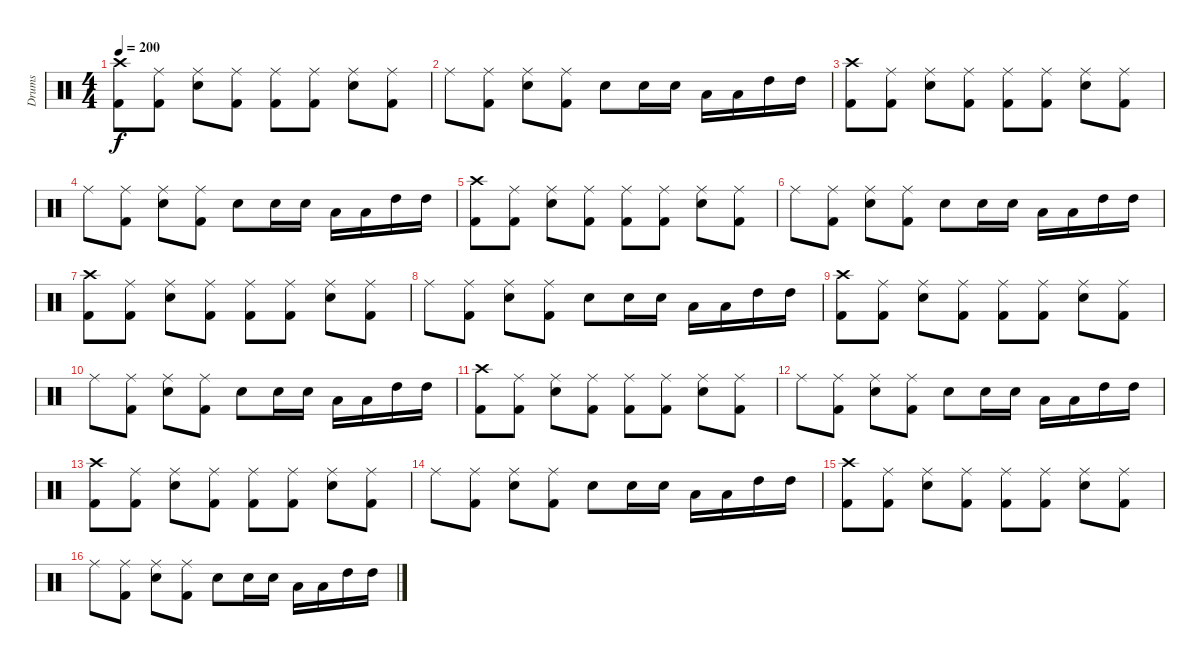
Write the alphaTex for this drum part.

\track ("Drums" "Drums") {instrument percussion}
\staff {score}
\articulation defaults
\ts (4 4)
\tempo 200
\clef neutral
\ks c
("Kick (hit) 2" "Crash high (hit)").8{dy f} ("Kick (hit) 2" "Ride (middle)").8 ("Snare (hit) 2" "Ride (middle)").8 ("Kick (hit) 2" "Ride (middle)").8 ("Kick (hit) 2" "Ride (middle)").8 ("Kick (hit) 2" "Ride (middle)").8 ("Snare (hit) 2" "Ride (middle)").8 ("Kick (hit) 2" "Ride (middle)").8 |
"Ride (middle)".8 ("Kick (hit) 2" "Ride (middle)").8 ("Snare (hit) 2" "Ride (middle)").8 ("Kick (hit) 2" "Ride (middle)").8 "Snare (hit) 2".8 "Snare (hit) 2".16 "Snare (hit) 2".16 "Low Tom (hit)".16 "Low Tom (hit)".16 "High Tom (hit)".16 "High Tom (hit)".16 |
("Kick (hit) 2" "Crash high (hit)").8 ("Kick (hit) 2" "Ride (middle)").8 ("Snare (hit) 2" "Ride (middle)").8 ("Kick (hit) 2" "Ride (middle)").8 ("Kick (hit) 2" "Ride (middle)").8 ("Kick (hit) 2" "Ride (middle)").8 ("Snare (hit) 2" "Ride (middle)").8 ("Kick (hit) 2" "Ride (middle)").8 |
"Ride (middle)".8 ("Kick (hit) 2" "Ride (middle)").8 ("Snare (hit) 2" "Ride (middle)").8 ("Kick (hit) 2" "Ride (middle)").8 "Snare (hit) 2".8 "Snare (hit) 2".16 "Snare (hit) 2".16 "Low Tom (hit)".16 "Low Tom (hit)".16 "High Tom (hit)".16 "High Tom (hit)".16 |
("Kick (hit) 2" "Crash high (hit)").8 ("Kick (hit) 2" "Ride (middle)").8 ("Snare (hit) 2" "Ride (middle)").8 ("Kick (hit) 2" "Ride (middle)").8 ("Kick (hit) 2" "Ride (middle)").8 ("Kick (hit) 2" "Ride (middle)").8 ("Snare (hit) 2" "Ride (middle)").8 ("Kick (hit) 2" "Ride (middle)").8 |
"Ride (middle)".8 ("Kick (hit) 2" "Ride (middle)").8 ("Snare (hit) 2" "Ride (middle)").8 ("Kick (hit) 2" "Ride (middle)").8 "Snare (hit) 2".8 "Snare (hit) 2".16 "Snare (hit) 2".16 "Low Tom (hit)".16 "Low Tom (hit)".16 "High Tom (hit)".16 "High Tom (hit)".16 |
("Kick (hit) 2" "Crash high (hit)").8 ("Kick (hit) 2" "Ride (middle)").8 ("Snare (hit) 2" "Ride (middle)").8 ("Kick (hit) 2" "Ride (middle)").8 ("Kick (hit) 2" "Ride (middle)").8 ("Kick (hit) 2" "Ride (middle)").8 ("Snare (hit) 2" "Ride (middle)").8 ("Kick (hit) 2" "Ride (middle)").8 |
"Ride (middle)".8 ("Kick (hit) 2" "Ride (middle)").8 ("Snare (hit) 2" "Ride (middle)").8 ("Kick (hit) 2" "Ride (middle)").8 "Snare (hit) 2".8 "Snare (hit) 2".16 "Snare (hit) 2".16 "Low Tom (hit)".16 "Low Tom (hit)".16 "High Tom (hit)".16 "High Tom (hit)".16 |
("Kick (hit) 2" "Crash high (hit)").8 ("Kick (hit) 2" "Ride (middle)").8 ("Snare (hit) 2" "Ride (middle)").8 ("Kick (hit) 2" "Ride (middle)").8 ("Kick (hit) 2" "Ride (middle)").8 ("Kick (hit) 2" "Ride (middle)").8 ("Snare (hit) 2" "Ride (middle)").8 ("Kick (hit) 2" "Ride (middle)").8 |
"Ride (middle)".8 ("Kick (hit) 2" "Ride (middle)").8 ("Snare (hit) 2" "Ride (middle)").8 ("Kick (hit) 2" "Ride (middle)").8 "Snare (hit) 2".8 "Snare (hit) 2".16 "Snare (hit) 2".16 "Low Tom (hit)".16 "Low Tom (hit)".16 "High Tom (hit)".16 "High Tom (hit)".16 |
("Kick (hit) 2" "Crash high (hit)").8 ("Kick (hit) 2" "Ride (middle)").8 ("Snare (hit) 2" "Ride (middle)").8 ("Kick (hit) 2" "Ride (middle)").8 ("Kick (hit) 2" "Ride (middle)").8 ("Kick (hit) 2" "Ride (middle)").8 ("Snare (hit) 2" "Ride (middle)").8 ("Kick (hit) 2" "Ride (middle)").8 |
"Ride (middle)".8 ("Kick (hit) 2" "Ride (middle)").8 ("Snare (hit) 2" "Ride (middle)").8 ("Kick (hit) 2" "Ride (middle)").8 "Snare (hit) 2".8 "Snare (hit) 2".16 "Snare (hit) 2".16 "Low Tom (hit)".16 "Low Tom (hit)".16 "High Tom (hit)".16 "High Tom (hit)".16 |
("Kick (hit) 2" "Crash high (hit)").8 ("Kick (hit) 2" "Ride (middle)").8 ("Snare (hit) 2" "Ride (middle)").8 ("Kick (hit) 2" "Ride (middle)").8 ("Kick (hit) 2" "Ride (middle)").8 ("Kick (hit) 2" "Ride (middle)").8 ("Snare (hit) 2" "Ride (middle)").8 ("Kick (hit) 2" "Ride (middle)").8 |
"Ride (middle)".8 ("Kick (hit) 2" "Ride (middle)").8 ("Snare (hit) 2" "Ride (middle)").8 ("Kick (hit) 2" "Ride (middle)").8 "Snare (hit) 2".8 "Snare (hit) 2".16 "Snare (hit) 2".16 "Low Tom (hit)".16 "Low Tom (hit)".16 "High Tom (hit)".16 "High Tom (hit)".16 |
("Kick (hit) 2" "Crash high (hit)").8 ("Kick (hit) 2" "Ride (middle)").8 ("Snare (hit) 2" "Ride (middle)").8 ("Kick (hit) 2" "Ride (middle)").8 ("Kick (hit) 2" "Ride (middle)").8 ("Kick (hit) 2" "Ride (middle)").8 ("Snare (hit) 2" "Ride (middle)").8 ("Kick (hit) 2" "Ride (middle)").8 |
"Ride (middle)".8 ("Kick (hit) 2" "Ride (middle)").8 ("Snare (hit) 2" "Ride (middle)").8 ("Kick (hit) 2" "Ride (middle)").8 "Snare (hit) 2".8 "Snare (hit) 2".16 "Snare (hit) 2".16 "Low Tom (hit)".16 "Low Tom (hit)".16 "High Tom (hit)".16 "High Tom (hit)".16
